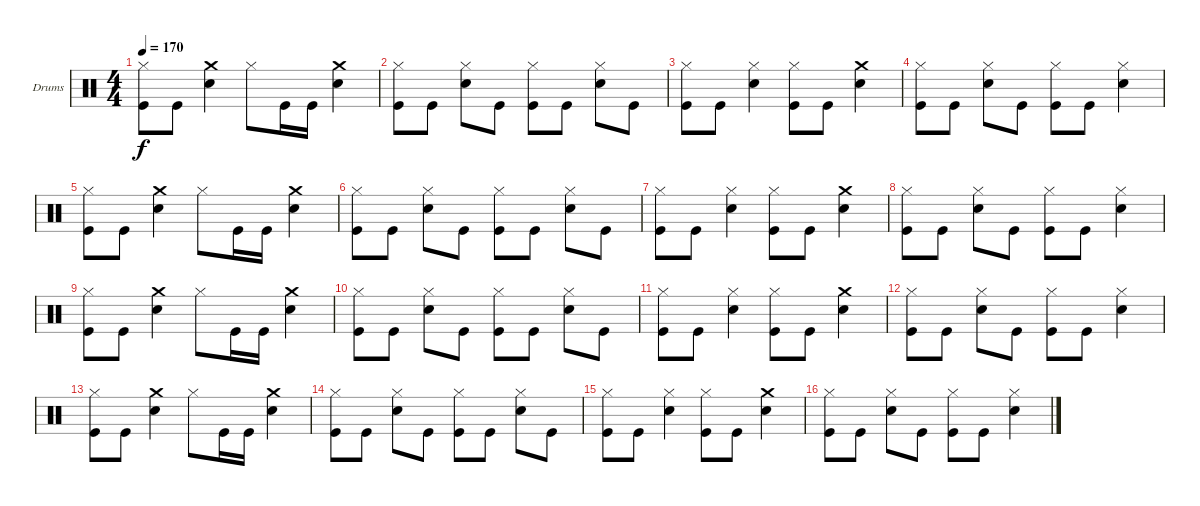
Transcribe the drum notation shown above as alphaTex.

\bracketExtendMode groupsimilarinstruments
\firstSystemTrackNameOrientation horizontal
\otherSystemsTrackNameOrientation horizontal
\track ("Drumkit" "Drums") {instrument percussion}
\staff {score}
\articulation defaults
\ts (4 4)
\tempo 170
\clef neutral
\ks c
("Hi-Hat (closed)" "Kick (hit)").8{dy f} "Kick (hit)".8 ("Crash medium (hit)" "Snare (hit) 2").4 "Hi-Hat (closed)".8 "Kick (hit)".16 "Kick (hit)".16 ("Crash medium (hit)" "Snare (hit) 2").4 |
("Hi-Hat (closed)" "Kick (hit)").8 "Kick (hit)".8 ("Hi-Hat (closed)" "Snare (hit) 2").8 "Kick (hit)".8 ("Hi-Hat (closed)" "Kick (hit)").8 "Kick (hit)".8 ("Hi-Hat (closed)" "Snare (hit) 2").8 "Kick (hit)".8 |
("Hi-Hat (closed)" "Kick (hit)").8 "Kick (hit)".8 ("Hi-Hat (closed)" "Snare (hit) 2").4 ("Hi-Hat (closed)" "Kick (hit)").8 "Kick (hit)".8 ("Crash medium (hit)" "Snare (hit) 2").4 |
("Hi-Hat (closed)" "Kick (hit)").8 "Kick (hit)".8 ("Hi-Hat (closed)" "Snare (hit) 2").8 "Kick (hit)".8 ("Hi-Hat (closed)" "Kick (hit)").8 "Kick (hit)".8 ("Hi-Hat (closed)" "Snare (hit) 2").4 |
("Hi-Hat (closed)" "Kick (hit)").8 "Kick (hit)".8 ("Crash medium (hit)" "Snare (hit) 2").4 "Hi-Hat (closed)".8 "Kick (hit)".16 "Kick (hit)".16 ("Crash medium (hit)" "Snare (hit) 2").4 |
("Hi-Hat (closed)" "Kick (hit)").8 "Kick (hit)".8 ("Hi-Hat (closed)" "Snare (hit) 2").8 "Kick (hit)".8 ("Hi-Hat (closed)" "Kick (hit)").8 "Kick (hit)".8 ("Hi-Hat (closed)" "Snare (hit) 2").8 "Kick (hit)".8 |
("Hi-Hat (closed)" "Kick (hit)").8 "Kick (hit)".8 ("Hi-Hat (closed)" "Snare (hit) 2").4 ("Hi-Hat (closed)" "Kick (hit)").8 "Kick (hit)".8 ("Crash medium (hit)" "Snare (hit) 2").4 |
("Hi-Hat (closed)" "Kick (hit)").8 "Kick (hit)".8 ("Hi-Hat (closed)" "Snare (hit) 2").8 "Kick (hit)".8 ("Hi-Hat (closed)" "Kick (hit)").8 "Kick (hit)".8 ("Hi-Hat (closed)" "Snare (hit) 2").4 |
("Hi-Hat (closed)" "Kick (hit)").8 "Kick (hit)".8 ("Crash medium (hit)" "Snare (hit) 2").4 "Hi-Hat (closed)".8 "Kick (hit)".16 "Kick (hit)".16 ("Crash medium (hit)" "Snare (hit) 2").4 |
("Hi-Hat (closed)" "Kick (hit)").8 "Kick (hit)".8 ("Hi-Hat (closed)" "Snare (hit) 2").8 "Kick (hit)".8 ("Hi-Hat (closed)" "Kick (hit)").8 "Kick (hit)".8 ("Hi-Hat (closed)" "Snare (hit) 2").8 "Kick (hit)".8 |
("Hi-Hat (closed)" "Kick (hit)").8 "Kick (hit)".8 ("Hi-Hat (closed)" "Snare (hit) 2").4 ("Hi-Hat (closed)" "Kick (hit)").8 "Kick (hit)".8 ("Crash medium (hit)" "Snare (hit) 2").4 |
("Hi-Hat (closed)" "Kick (hit)").8 "Kick (hit)".8 ("Hi-Hat (closed)" "Snare (hit) 2").8 "Kick (hit)".8 ("Hi-Hat (closed)" "Kick (hit)").8 "Kick (hit)".8 ("Hi-Hat (closed)" "Snare (hit) 2").4 |
("Hi-Hat (closed)" "Kick (hit)").8 "Kick (hit)".8 ("Crash medium (hit)" "Snare (hit) 2").4 "Hi-Hat (closed)".8 "Kick (hit)".16 "Kick (hit)".16 ("Crash medium (hit)" "Snare (hit) 2").4 |
("Hi-Hat (closed)" "Kick (hit)").8 "Kick (hit)".8 ("Hi-Hat (closed)" "Snare (hit) 2").8 "Kick (hit)".8 ("Hi-Hat (closed)" "Kick (hit)").8 "Kick (hit)".8 ("Hi-Hat (closed)" "Snare (hit) 2").8 "Kick (hit)".8 |
("Hi-Hat (closed)" "Kick (hit)").8 "Kick (hit)".8 ("Hi-Hat (closed)" "Snare (hit) 2").4 ("Hi-Hat (closed)" "Kick (hit)").8 "Kick (hit)".8 ("Crash medium (hit)" "Snare (hit) 2").4 |
("Hi-Hat (closed)" "Kick (hit)").8 "Kick (hit)".8 ("Hi-Hat (closed)" "Snare (hit) 2").8 "Kick (hit)".8 ("Hi-Hat (closed)" "Kick (hit)").8 "Kick (hit)".8 ("Hi-Hat (closed)" "Snare (hit) 2").4
